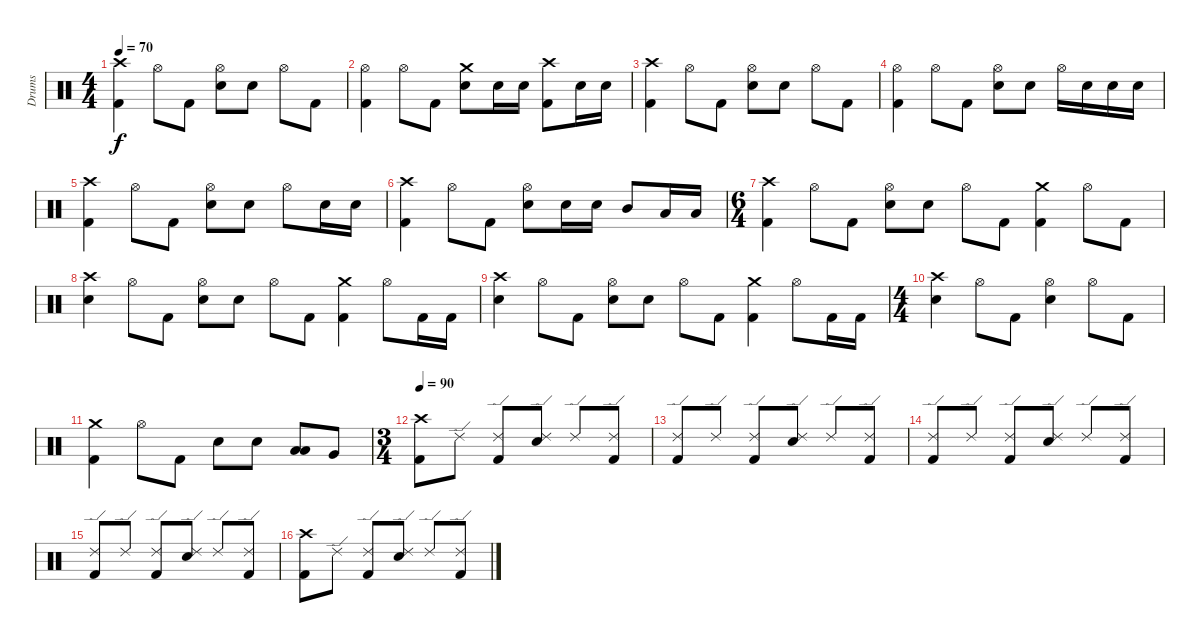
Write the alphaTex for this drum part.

\track ("Drums" "Drums") {instrument percussion}
\staff {score}
\articulation defaults
\ts (4 4)
\tempo 70
\clef neutral
\ks c
("Crash high (hit)" "Kick (hit) 2").4{dy f} "Hi-Hat (open)".8 "Kick (hit) 2".8 ("Hi-Hat (open)" "Electric Snare (hit)").8 "Electric Snare (hit)".8 "Hi-Hat (open)".8 "Kick (hit) 2".8 |
("Hi-Hat (open)" "Kick (hit) 2").4 "Hi-Hat (open)".8 "Kick (hit) 2".8 ("Crash medium (hit)" "Electric Snare (hit)").8 "Electric Snare (hit)".16 "Electric Snare (hit)".16 ("Crash high (hit)" "Kick (hit) 2").8 "Electric Snare (hit)".16 "Electric Snare (hit)".16 |
("Crash high (hit)" "Kick (hit) 2").4 "Hi-Hat (open)".8 "Kick (hit) 2".8 ("Hi-Hat (open)" "Electric Snare (hit)").8 "Electric Snare (hit)".8 "Hi-Hat (open)".8 "Kick (hit) 2".8 |
("Hi-Hat (open)" "Kick (hit) 2").4 "Hi-Hat (open)".8 "Kick (hit) 2".8 ("Hi-Hat (open)" "Electric Snare (hit)").8 "Electric Snare (hit)".8 "Hi-Hat (open)".16 "Electric Snare (hit)".16 "Electric Snare (hit)".16 "Electric Snare (hit)".16 |
("Crash high (hit)" "Kick (hit) 2").4 "Hi-Hat (open)".8 "Kick (hit) 2".8 ("Hi-Hat (open)" "Electric Snare (hit)").8 "Electric Snare (hit)".8 "Hi-Hat (open)".8 "Electric Snare (hit)".16 "Electric Snare (hit)".16 |
("Crash high (hit)" "Kick (hit) 2").4 "Hi-Hat (open)".8 "Kick (hit) 2".8 ("Hi-Hat (open)" "Electric Snare (hit)").8 "Electric Snare (hit)".16 "Electric Snare (hit)".16 "Mid Tom (hit)".8 "Low Tom (hit)".16 "Low Tom (hit)".16 |
\ts (6 4)
("Crash high (hit)" "Kick (hit) 2").4 "Hi-Hat (open)".8 "Kick (hit) 2".8 ("Hi-Hat (open)" "Electric Snare (hit)").8 "Electric Snare (hit)".8 "Hi-Hat (open)".8 "Kick (hit) 2".8 ("Crash medium (hit)" "Kick (hit) 2").4 "Hi-Hat (open)".8 "Kick (hit) 2".8 |
("Crash high (hit)" "Electric Snare (hit)").4 "Hi-Hat (open)".8 "Kick (hit) 2".8 ("Hi-Hat (open)" "Electric Snare (hit)").8 "Electric Snare (hit)".8 "Hi-Hat (open)".8 "Kick (hit) 2".8 ("Crash medium (hit)" "Kick (hit) 2").4 "Hi-Hat (open)".8 "Kick (hit) 2".16 "Kick (hit) 2".16 |
("Crash high (hit)" "Electric Snare (hit)").4 "Hi-Hat (open)".8 "Kick (hit) 2".8 ("Hi-Hat (open)" "Electric Snare (hit)").8 "Electric Snare (hit)".8 "Hi-Hat (open)".8 "Kick (hit) 2".8 ("Crash medium (hit)" "Kick (hit) 2").4 "Hi-Hat (open)".8 "Kick (hit) 2".16 "Kick (hit) 2".16 |
\ts (4 4)
("Crash high (hit)" "Electric Snare (hit)").4 "Hi-Hat (open)".8 "Kick (hit) 2".8 ("Hi-Hat (open)" "Electric Snare (hit)").4 "Hi-Hat (open)".8 "Kick (hit) 2".8 |
("Crash medium (hit)" "Kick (hit) 2").4 "Hi-Hat (open)".8 "Kick (hit) 2".8 "Electric Snare (hit)".8 "Electric Snare (hit)".8 ("Low Tom (hit)" "Low Tom (hit)").8{bu 60} "Very Low Tom (hit)".8 |
\ts (3 4)
\tempo 90
("Crash high (hit)" "Kick (hit) 2").8 "Ride (edge) 2".8 ("Ride (edge) 2" "Kick (hit) 2").8 ("Ride (edge) 2" "Electric Snare (hit)").8 "Ride (edge) 2".8 ("Ride (edge) 2" "Kick (hit) 2").8 |
("Ride (edge) 2" "Kick (hit) 2").8 "Ride (edge) 2".8 ("Ride (edge) 2" "Kick (hit) 2").8 ("Ride (edge) 2" "Electric Snare (hit)").8 "Ride (edge) 2".8 ("Ride (edge) 2" "Kick (hit) 2").8 |
("Ride (edge) 2" "Kick (hit) 2").8 "Ride (edge) 2".8 ("Ride (edge) 2" "Kick (hit) 2").8 ("Ride (edge) 2" "Electric Snare (hit)").8 "Ride (edge) 2".8 ("Ride (edge) 2" "Kick (hit) 2").8 |
("Ride (edge) 2" "Kick (hit) 2").8 "Ride (edge) 2".8 ("Ride (edge) 2" "Kick (hit) 2").8 ("Ride (edge) 2" "Electric Snare (hit)").8 "Ride (edge) 2".8 ("Ride (edge) 2" "Kick (hit) 2").8 |
("Crash high (hit)" "Kick (hit) 2").8 "Ride (edge) 2".8 ("Ride (edge) 2" "Kick (hit) 2").8 ("Ride (edge) 2" "Electric Snare (hit)").8 "Ride (edge) 2".8 ("Ride (edge) 2" "Kick (hit) 2").8
